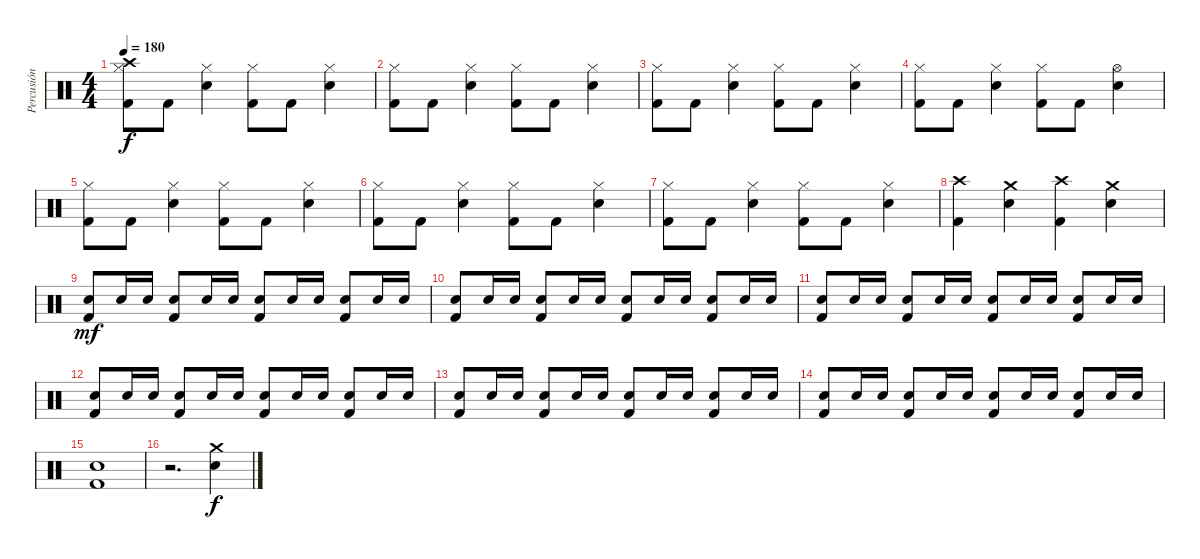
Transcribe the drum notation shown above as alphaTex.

\track ("Percusión" "Percusión") {instrument percussion}
\staff {score}
\articulation defaults
\ts (4 4)
\tempo 180
\clef neutral
\ks c
("Crash high (hit)" "Hi-Hat (closed)" "Kick (hit) 2").8{dy f} "Kick (hit) 2".8 ("Hi-Hat (closed)" "Electric Snare (hit)").4 ("Hi-Hat (closed)" "Kick (hit) 2").8 "Kick (hit) 2".8 ("Hi-Hat (closed)" "Electric Snare (hit)").4 |
("Hi-Hat (closed)" "Kick (hit) 2").8 "Kick (hit) 2".8 ("Hi-Hat (closed)" "Electric Snare (hit)").4 ("Hi-Hat (closed)" "Kick (hit) 2").8 "Kick (hit) 2".8 ("Hi-Hat (closed)" "Electric Snare (hit)").4 |
("Hi-Hat (closed)" "Kick (hit) 2").8 "Kick (hit) 2".8 ("Hi-Hat (closed)" "Electric Snare (hit)").4 ("Hi-Hat (closed)" "Kick (hit) 2").8 "Kick (hit) 2".8 ("Hi-Hat (closed)" "Electric Snare (hit)").4 |
("Hi-Hat (closed)" "Kick (hit) 2").8 "Kick (hit) 2".8 ("Hi-Hat (closed)" "Electric Snare (hit)").4 ("Hi-Hat (closed)" "Kick (hit) 2").8 "Kick (hit) 2".8 ("Hi-Hat (open)" "Electric Snare (hit)").4 |
("Hi-Hat (closed)" "Kick (hit) 2").8 "Kick (hit) 2".8 ("Hi-Hat (closed)" "Electric Snare (hit)").4 ("Hi-Hat (closed)" "Kick (hit) 2").8 "Kick (hit) 2".8 ("Hi-Hat (closed)" "Electric Snare (hit)").4 |
("Hi-Hat (closed)" "Kick (hit) 2").8 "Kick (hit) 2".8 ("Hi-Hat (closed)" "Electric Snare (hit)").4 ("Hi-Hat (closed)" "Kick (hit) 2").8 "Kick (hit) 2".8 ("Hi-Hat (closed)" "Electric Snare (hit)").4 |
("Hi-Hat (closed)" "Kick (hit) 2").8 "Kick (hit) 2".8 ("Hi-Hat (closed)" "Electric Snare (hit)").4 ("Hi-Hat (closed)" "Kick (hit) 2").8 "Kick (hit) 2".8 ("Hi-Hat (closed)" "Electric Snare (hit)").4 |
("Crash high (hit)" "Kick (hit) 2").4 ("Crash medium (hit)" "Electric Snare (hit)").4 ("Crash high (hit)" "Kick (hit) 2").4 ("Crash medium (hit)" "Electric Snare (hit)").4 |
("Electric Snare (hit)" "Kick (hit) 2").8{dy mf} "Electric Snare (hit)".16 "Electric Snare (hit)".16 ("Electric Snare (hit)" "Kick (hit) 2").8 "Electric Snare (hit)".16 "Electric Snare (hit)".16 ("Electric Snare (hit)" "Kick (hit) 2").8 "Electric Snare (hit)".16 "Electric Snare (hit)".16 ("Electric Snare (hit)" "Kick (hit) 2").8 "Electric Snare (hit)".16 "Electric Snare (hit)".16 |
("Electric Snare (hit)" "Kick (hit) 2").8 "Electric Snare (hit)".16 "Electric Snare (hit)".16 ("Electric Snare (hit)" "Kick (hit) 2").8 "Electric Snare (hit)".16 "Electric Snare (hit)".16 ("Electric Snare (hit)" "Kick (hit) 2").8 "Electric Snare (hit)".16 "Electric Snare (hit)".16 ("Electric Snare (hit)" "Kick (hit) 2").8 "Electric Snare (hit)".16 "Electric Snare (hit)".16 |
("Electric Snare (hit)" "Kick (hit) 2").8 "Electric Snare (hit)".16 "Electric Snare (hit)".16 ("Electric Snare (hit)" "Kick (hit) 2").8 "Electric Snare (hit)".16 "Electric Snare (hit)".16 ("Electric Snare (hit)" "Kick (hit) 2").8 "Electric Snare (hit)".16 "Electric Snare (hit)".16 ("Electric Snare (hit)" "Kick (hit) 2").8 "Electric Snare (hit)".16 "Electric Snare (hit)".16 |
("Electric Snare (hit)" "Kick (hit) 2").8 "Electric Snare (hit)".16 "Electric Snare (hit)".16 ("Electric Snare (hit)" "Kick (hit) 2").8 "Electric Snare (hit)".16 "Electric Snare (hit)".16 ("Electric Snare (hit)" "Kick (hit) 2").8 "Electric Snare (hit)".16 "Electric Snare (hit)".16 ("Electric Snare (hit)" "Kick (hit) 2").8 "Electric Snare (hit)".16 "Electric Snare (hit)".16 |
("Electric Snare (hit)" "Kick (hit) 2").8 "Electric Snare (hit)".16 "Electric Snare (hit)".16 ("Electric Snare (hit)" "Kick (hit) 2").8 "Electric Snare (hit)".16 "Electric Snare (hit)".16 ("Electric Snare (hit)" "Kick (hit) 2").8 "Electric Snare (hit)".16 "Electric Snare (hit)".16 ("Electric Snare (hit)" "Kick (hit) 2").8 "Electric Snare (hit)".16 "Electric Snare (hit)".16 |
("Electric Snare (hit)" "Kick (hit) 2").8 "Electric Snare (hit)".16 "Electric Snare (hit)".16 ("Electric Snare (hit)" "Kick (hit) 2").8 "Electric Snare (hit)".16 "Electric Snare (hit)".16 ("Electric Snare (hit)" "Kick (hit) 2").8 "Electric Snare (hit)".16 "Electric Snare (hit)".16 ("Electric Snare (hit)" "Kick (hit) 2").8 "Electric Snare (hit)".16 "Electric Snare (hit)".16 |
("Electric Snare (hit)" "Kick (hit) 2").1 |
r.2{d} ("Crash medium (hit)" "Electric Snare (hit)").4{dy f}
